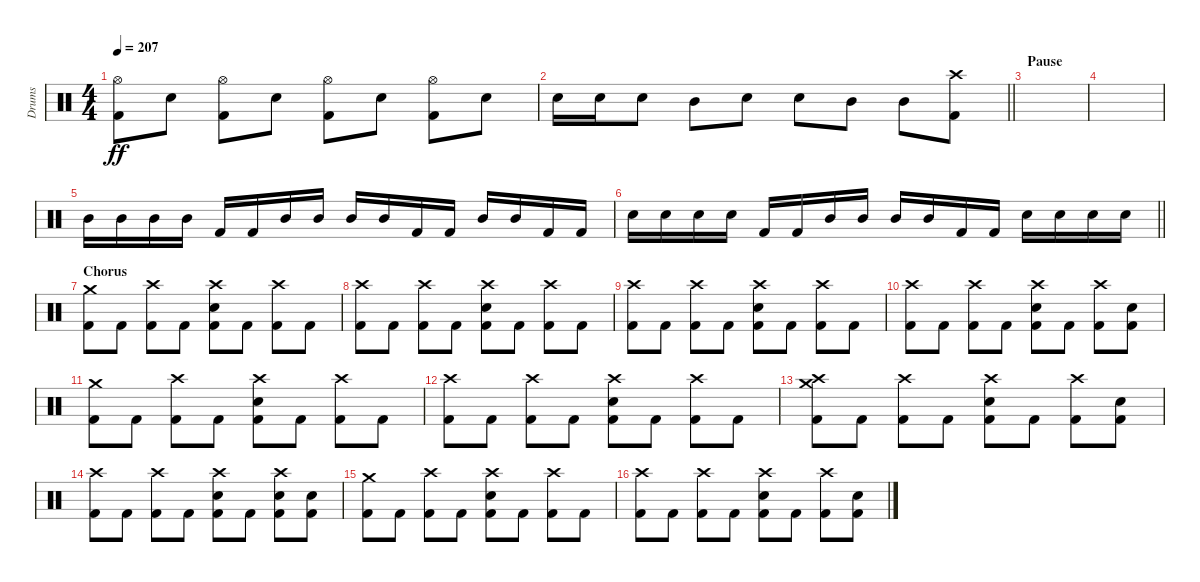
\track ("Drums" "Drums") {instrument percussion}
\staff {score}
\articulation defaults
\ts (4 4)
\tempo 207
\clef neutral
\ks c
("Hi-Hat (open)" "Kick (hit) 2").8{dy ff} "Snare (hit) 2".8 ("Hi-Hat (open)" "Kick (hit) 2").8 "Snare (hit) 2".8 ("Hi-Hat (open)" "Kick (hit) 2").8 "Snare (hit) 2".8 ("Hi-Hat (open)" "Kick (hit) 2").8 "Snare (hit) 2".8 |
\barLineRight lightlight "Snare (hit) 2".16 "Snare (hit) 2".16 "Snare (hit) 2".8 "Mid Tom (hit)".8 "Snare (hit) 2".8 "Snare (hit) 2".8 "Mid Tom (hit)".8 "Mid Tom (hit)".8
("Crash high (hit)" "Kick (hit) 2").8 |
\section ("" "Pause")
|
|
"Mid Tom (hit)".16 "Mid Tom (hit)".16 "Mid Tom (hit)".16 "Mid Tom (hit)".16 "Kick (hit) 2".16 "Kick (hit) 2".16 "Mid Tom (hit)".16 "Mid Tom (hit)".16 "Mid Tom (hit)".16 "Mid Tom (hit)".16 "Kick (hit) 2".16 "Kick (hit) 2".16 "Mid Tom (hit)".16 "Mid Tom (hit)".16 "Kick (hit) 2".16 "Kick (hit) 2".16 |
\barLineRight lightlight "Snare (hit) 2".16 "Snare (hit) 2".16 "Snare (hit) 2".16 "Snare (hit) 2".16 "Kick (hit) 2".16 "Kick (hit) 2".16 "Mid Tom (hit)".16 "Mid Tom (hit)".16 "Mid Tom (hit)".16 "Mid Tom (hit)".16 "Kick (hit) 2".16 "Kick (hit) 2".16 "Snare (hit) 2".16 "Snare (hit) 2".16 "Snare (hit) 2".16 "Snare (hit) 2".16
|
\section ("" "Chorus")
("Crash medium (hit)" "Kick (hit) 2").8 "Kick (hit) 2".8 ("Crash high (hit)" "Kick (hit) 2").8 "Kick (hit) 2".8 ("Crash high (hit)" "Snare (hit) 2" "Kick (hit) 2").8 "Kick (hit) 2".8 ("Crash high (hit)" "Kick (hit) 2").8 "Kick (hit) 2".8 |
("Crash high (hit)" "Kick (hit) 2").8 "Kick (hit) 2".8 ("Crash high (hit)" "Kick (hit) 2").8 "Kick (hit) 2".8 ("Crash high (hit)" "Snare (hit) 2" "Kick (hit) 2").8 "Kick (hit) 2".8 ("Crash high (hit)" "Kick (hit) 2").8 "Kick (hit) 2".8 |
("Crash high (hit)" "Kick (hit) 2").8 "Kick (hit) 2".8 ("Crash high (hit)" "Kick (hit) 2").8 "Kick (hit) 2".8 ("Crash high (hit)" "Snare (hit) 2" "Kick (hit) 2").8 "Kick (hit) 2".8 ("Crash high (hit)" "Kick (hit) 2").8 "Kick (hit) 2".8 |
("Crash high (hit)" "Kick (hit) 2").8 "Kick (hit) 2".8 ("Crash high (hit)" "Kick (hit) 2").8 "Kick (hit) 2".8 ("Crash high (hit)" "Snare (hit) 2" "Kick (hit) 2").8 "Kick (hit) 2".8 ("Crash high (hit)" "Kick (hit) 2").8 ("Snare (hit) 2" "Kick (hit) 2").8 |
("Crash medium (hit)" "Kick (hit) 2").8 "Kick (hit) 2".8 ("Crash high (hit)" "Kick (hit) 2").8 "Kick (hit) 2".8 ("Crash high (hit)" "Snare (hit) 2" "Kick (hit) 2").8 "Kick (hit) 2".8 ("Crash high (hit)" "Kick (hit) 2").8 "Kick (hit) 2".8 |
("Crash high (hit)" "Kick (hit) 2").8 "Kick (hit) 2".8 ("Crash high (hit)" "Kick (hit) 2").8 "Kick (hit) 2".8 ("Crash high (hit)" "Snare (hit) 2" "Kick (hit) 2").8 "Kick (hit) 2".8 ("Crash high (hit)" "Kick (hit) 2").8 "Kick (hit) 2".8 |
("Crash medium (hit)" "Crash high (hit)" "Kick (hit) 2").8 "Kick (hit) 2".8 ("Crash high (hit)" "Kick (hit) 2").8 "Kick (hit) 2".8 ("Crash high (hit)" "Snare (hit) 2" "Kick (hit) 2").8 "Kick (hit) 2".8 ("Crash high (hit)" "Kick (hit) 2").8 ("Snare (hit) 2" "Kick (hit) 2").8 |
("Crash high (hit)" "Kick (hit) 2").8 "Kick (hit) 2".8 ("Crash high (hit)" "Kick (hit) 2").8 "Kick (hit) 2".8 ("Crash high (hit)" "Snare (hit) 2" "Kick (hit) 2").8 "Kick (hit) 2".8 ("Crash high (hit)" "Snare (hit) 2" "Kick (hit) 2").8 ("Snare (hit) 2" "Kick (hit) 2").8 |
("Crash medium (hit)" "Kick (hit) 2").8 "Kick (hit) 2".8 ("Crash high (hit)" "Kick (hit) 2").8 "Kick (hit) 2".8 ("Crash high (hit)" "Snare (hit) 2" "Kick (hit) 2").8 "Kick (hit) 2".8 ("Crash high (hit)" "Kick (hit) 2").8 "Kick (hit) 2".8 |
("Crash high (hit)" "Kick (hit) 2").8 "Kick (hit) 2".8 ("Crash high (hit)" "Kick (hit) 2").8 "Kick (hit) 2".8 ("Crash high (hit)" "Snare (hit) 2" "Kick (hit) 2").8 "Kick (hit) 2".8 ("Crash high (hit)" "Kick (hit) 2").8 ("Snare (hit) 2" "Kick (hit) 2").8
